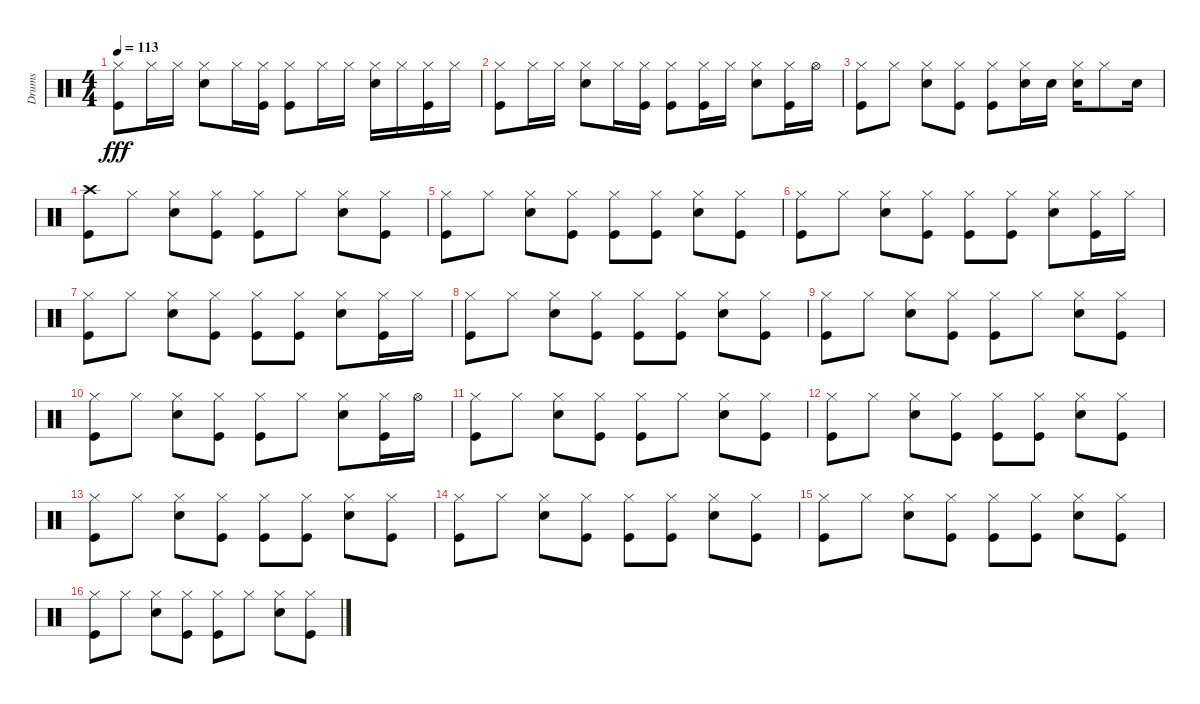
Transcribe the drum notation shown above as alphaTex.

\track ("Drums" "Drums") {instrument percussion}
\staff {score}
\articulation defaults
\ts (4 4)
\tempo 113
\clef neutral
\ks c
("Kick (hit)" "Hi-Hat (closed)").8{dy fff} "Hi-Hat (closed)".16 "Hi-Hat (closed)".16 ("Snare (hit) 2" "Hi-Hat (closed)").8 "Hi-Hat (closed)".16 ("Kick (hit)" "Hi-Hat (closed)").16 ("Kick (hit)" "Hi-Hat (closed)").8 "Hi-Hat (closed)".16 "Hi-Hat (closed)".16 ("Snare (hit) 2" "Hi-Hat (closed)").16 "Hi-Hat (closed)".16 ("Kick (hit)" "Hi-Hat (closed)").16 "Hi-Hat (closed)".16 |
("Kick (hit)" "Hi-Hat (closed)").8 "Hi-Hat (closed)".16 "Hi-Hat (closed)".16 ("Snare (hit) 2" "Hi-Hat (closed)").8 "Hi-Hat (closed)".16 ("Kick (hit)" "Hi-Hat (closed)").16 ("Kick (hit)" "Hi-Hat (closed)").8 ("Kick (hit)" "Hi-Hat (closed)").16 "Hi-Hat (closed)".16 ("Snare (hit) 2" "Hi-Hat (closed)").8 ("Kick (hit)" "Hi-Hat (closed)").16 "Hi-Hat (open)".16 |
("Kick (hit)" "Hi-Hat (closed)").8 "Hi-Hat (closed)".8 ("Snare (hit) 2" "Hi-Hat (closed)").8 ("Kick (hit)" "Hi-Hat (closed)").8 ("Kick (hit)" "Hi-Hat (closed)").8 ("Hi-Hat (closed)" "Snare (hit) 2").16 "Snare (hit) 2".16 ("Snare (hit) 2" "Hi-Hat (closed)").16 "Hi-Hat (closed)".8 "Snare (hit) 2".16 |
("Kick (hit)" "Crash high (hit)").8 "Hi-Hat (closed)".8 ("Snare (hit) 2" "Hi-Hat (closed)").8 ("Kick (hit)" "Hi-Hat (closed)").8 ("Kick (hit)" "Hi-Hat (closed)").8 "Hi-Hat (closed)".8 ("Snare (hit) 2" "Hi-Hat (closed)").8 ("Kick (hit)" "Hi-Hat (closed)").8 |
("Kick (hit)" "Hi-Hat (closed)").8 "Hi-Hat (closed)".8 ("Snare (hit) 2" "Hi-Hat (closed)").8 ("Kick (hit)" "Hi-Hat (closed)").8 ("Kick (hit)" "Hi-Hat (closed)").8 ("Kick (hit)" "Hi-Hat (closed)").8 ("Snare (hit) 2" "Hi-Hat (closed)").8 ("Kick (hit)" "Hi-Hat (closed)").8 |
("Kick (hit)" "Hi-Hat (closed)").8 "Hi-Hat (closed)".8 ("Snare (hit) 2" "Hi-Hat (closed)").8 ("Kick (hit)" "Hi-Hat (closed)").8 ("Kick (hit)" "Hi-Hat (closed)").8 ("Kick (hit)" "Hi-Hat (closed)").8 ("Snare (hit) 2" "Hi-Hat (closed)").8 ("Kick (hit)" "Hi-Hat (closed)").16 "Hi-Hat (closed)".16 |
("Kick (hit)" "Hi-Hat (closed)").8 "Hi-Hat (closed)".8 ("Snare (hit) 2" "Hi-Hat (closed)").8 ("Kick (hit)" "Hi-Hat (closed)").8 ("Kick (hit)" "Hi-Hat (closed)").8 ("Kick (hit)" "Hi-Hat (closed)").8 ("Snare (hit) 2" "Hi-Hat (closed)").8 ("Kick (hit)" "Hi-Hat (closed)").16 "Hi-Hat (closed)".16 |
("Kick (hit)" "Hi-Hat (closed)").8 "Hi-Hat (closed)".8 ("Snare (hit) 2" "Hi-Hat (closed)").8 ("Kick (hit)" "Hi-Hat (closed)").8 ("Kick (hit)" "Hi-Hat (closed)").8 ("Kick (hit)" "Hi-Hat (closed)").8 ("Snare (hit) 2" "Hi-Hat (closed)").8 ("Kick (hit)" "Hi-Hat (closed)").8 |
("Kick (hit)" "Hi-Hat (closed)").8 "Hi-Hat (closed)".8 ("Snare (hit) 2" "Hi-Hat (closed)").8 ("Kick (hit)" "Hi-Hat (closed)").8 ("Kick (hit)" "Hi-Hat (closed)").8 "Hi-Hat (closed)".8 ("Snare (hit) 2" "Hi-Hat (closed)").8 ("Kick (hit)" "Hi-Hat (closed)").8 |
("Kick (hit)" "Hi-Hat (closed)").8 "Hi-Hat (closed)".8 ("Snare (hit) 2" "Hi-Hat (closed)").8 ("Kick (hit)" "Hi-Hat (closed)").8 ("Kick (hit)" "Hi-Hat (closed)").8 "Hi-Hat (closed)".8 ("Snare (hit) 2" "Hi-Hat (closed)").8 ("Kick (hit)" "Hi-Hat (closed)").16 "Hi-Hat (open)".16 |
("Kick (hit)" "Hi-Hat (closed)").8 "Hi-Hat (closed)".8 ("Snare (hit) 2" "Hi-Hat (closed)").8 ("Kick (hit)" "Hi-Hat (closed)").8 ("Kick (hit)" "Hi-Hat (closed)").8 "Hi-Hat (closed)".8 ("Snare (hit) 2" "Hi-Hat (closed)").8 ("Kick (hit)" "Hi-Hat (closed)").8 |
("Kick (hit)" "Hi-Hat (closed)").8 "Hi-Hat (closed)".8 ("Snare (hit) 2" "Hi-Hat (closed)").8 ("Kick (hit)" "Hi-Hat (closed)").8 ("Kick (hit)" "Hi-Hat (closed)").8 ("Kick (hit)" "Hi-Hat (closed)").8 ("Snare (hit) 2" "Hi-Hat (closed)").8 ("Kick (hit)" "Hi-Hat (closed)").8 |
("Kick (hit)" "Hi-Hat (closed)").8 "Hi-Hat (closed)".8 ("Snare (hit) 2" "Hi-Hat (closed)").8 ("Kick (hit)" "Hi-Hat (closed)").8 ("Kick (hit)" "Hi-Hat (closed)").8 ("Kick (hit)" "Hi-Hat (closed)").8 ("Snare (hit) 2" "Hi-Hat (closed)").8 ("Kick (hit)" "Hi-Hat (closed)").8 |
("Kick (hit)" "Hi-Hat (closed)").8 "Hi-Hat (closed)".8 ("Snare (hit) 2" "Hi-Hat (closed)").8 ("Kick (hit)" "Hi-Hat (closed)").8 ("Kick (hit)" "Hi-Hat (closed)").8 ("Kick (hit)" "Hi-Hat (closed)").8 ("Snare (hit) 2" "Hi-Hat (closed)").8 ("Kick (hit)" "Hi-Hat (closed)").8 |
("Kick (hit)" "Hi-Hat (closed)").8 "Hi-Hat (closed)".8 ("Snare (hit) 2" "Hi-Hat (closed)").8 ("Kick (hit)" "Hi-Hat (closed)").8 ("Kick (hit)" "Hi-Hat (closed)").8 ("Kick (hit)" "Hi-Hat (closed)").8 ("Snare (hit) 2" "Hi-Hat (closed)").8 ("Kick (hit)" "Hi-Hat (closed)").8 |
("Kick (hit)" "Hi-Hat (closed)").8 "Hi-Hat (closed)".8 ("Snare (hit) 2" "Hi-Hat (closed)").8 ("Kick (hit)" "Hi-Hat (closed)").8 ("Kick (hit)" "Hi-Hat (closed)").8 "Hi-Hat (closed)".8 ("Snare (hit) 2" "Hi-Hat (closed)").8 ("Kick (hit)" "Hi-Hat (closed)").8
